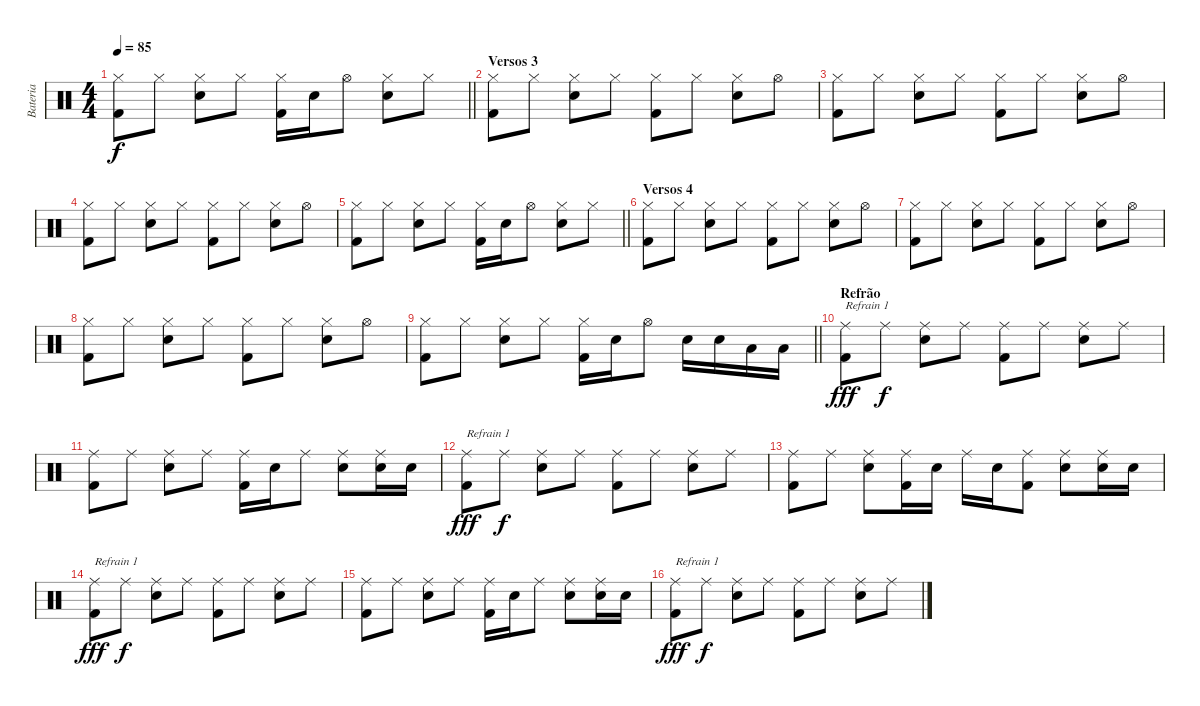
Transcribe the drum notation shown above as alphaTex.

\track ("Bateria" "Bateria") {instrument percussion}
\staff {score}
\articulation defaults
\ts (4 4)
\tempo 85
\clef neutral
\barLineRight lightlight
\ks c
("Hi-Hat (closed)" "Kick (hit) 2").8{dy f} "Hi-Hat (closed)".8 ("Hi-Hat (closed)" "Snare (hit) 2").8 "Hi-Hat (closed)".8 ("Hi-Hat (closed)" "Kick (hit) 2").16 "Snare (hit) 2".16 "Hi-Hat (open)".8 ("Hi-Hat (closed)" "Snare (hit) 2").8 "Hi-Hat (closed)".8 |
\section ("" "Versos 3")
("Hi-Hat (closed)" "Kick (hit) 2").8 "Hi-Hat (closed)".8 ("Hi-Hat (closed)" "Snare (hit) 2").8 "Hi-Hat (closed)".8 ("Hi-Hat (closed)" "Kick (hit) 2").8 "Hi-Hat (closed)".8 ("Hi-Hat (closed)" "Snare (hit) 2").8 "Hi-Hat (open)".8 |
("Hi-Hat (closed)" "Kick (hit) 2").8 "Hi-Hat (closed)".8 ("Hi-Hat (closed)" "Snare (hit) 2").8 "Hi-Hat (closed)".8 ("Hi-Hat (closed)" "Kick (hit) 2").8 "Hi-Hat (closed)".8 ("Hi-Hat (closed)" "Snare (hit) 2").8 "Hi-Hat (open)".8 |
("Hi-Hat (closed)" "Kick (hit) 2").8 "Hi-Hat (closed)".8 ("Hi-Hat (closed)" "Snare (hit) 2").8 "Hi-Hat (closed)".8 ("Hi-Hat (closed)" "Kick (hit) 2").8 "Hi-Hat (closed)".8 ("Hi-Hat (closed)" "Snare (hit) 2").8 "Hi-Hat (open)".8 |
\barLineRight lightlight
("Hi-Hat (closed)" "Kick (hit) 2").8 "Hi-Hat (closed)".8 ("Hi-Hat (closed)" "Snare (hit) 2").8 "Hi-Hat (closed)".8 ("Hi-Hat (closed)" "Kick (hit) 2").16 "Snare (hit) 2".16 "Hi-Hat (open)".8 ("Hi-Hat (closed)" "Snare (hit) 2").8 "Hi-Hat (closed)".8 |
\section ("" "Versos 4")
("Hi-Hat (closed)" "Kick (hit) 2").8 "Hi-Hat (closed)".8 ("Hi-Hat (closed)" "Snare (hit) 2").8 "Hi-Hat (closed)".8 ("Hi-Hat (closed)" "Kick (hit) 2").8 "Hi-Hat (closed)".8 ("Hi-Hat (closed)" "Snare (hit) 2").8 "Hi-Hat (open)".8 |
("Hi-Hat (closed)" "Kick (hit) 2").8 "Hi-Hat (closed)".8 ("Hi-Hat (closed)" "Snare (hit) 2").8 "Hi-Hat (closed)".8 ("Hi-Hat (closed)" "Kick (hit) 2").8 "Hi-Hat (closed)".8 ("Hi-Hat (closed)" "Snare (hit) 2").8 "Hi-Hat (open)".8 |
("Hi-Hat (closed)" "Kick (hit) 2").8 "Hi-Hat (closed)".8 ("Hi-Hat (closed)" "Snare (hit) 2").8 "Hi-Hat (closed)".8 ("Hi-Hat (closed)" "Kick (hit) 2").8 "Hi-Hat (closed)".8 ("Hi-Hat (closed)" "Snare (hit) 2").8 "Hi-Hat (open)".8 |
\barLineRight lightlight
("Hi-Hat (closed)" "Kick (hit) 2").8 "Hi-Hat (closed)".8 ("Hi-Hat (closed)" "Snare (hit) 2").8 "Hi-Hat (closed)".8 ("Hi-Hat (closed)" "Kick (hit) 2").16 "Snare (hit) 2".16 "Hi-Hat (open)".8 "Snare (hit) 2".16 "Snare (hit) 2".16 "Low Tom (hit)".16 "Low Tom (hit)".16 |
\section ("" "Refrão")
("Ride (middle)" "Kick (hit) 2").8{txt "Refrain 1" dy fff} "Ride (middle)".8{dy f} ("Ride (middle)" "Snare (hit) 2").8 "Ride (middle)".8 ("Ride (middle)" "Kick (hit) 2").8 "Ride (middle)".8 ("Ride (middle)" "Snare (hit) 2").8 "Ride (middle)".8 |
("Ride (middle)" "Kick (hit) 2").8 "Ride (middle)".8 ("Ride (middle)" "Snare (hit) 2").8 "Ride (middle)".8 ("Ride (middle)" "Kick (hit) 2").16 "Snare (hit) 2".16 "Ride (middle)".8 ("Ride (middle)" "Snare (hit) 2").8 ("Ride (middle)" "Snare (hit) 2").16 "Snare (hit) 2".16 |
("Ride (middle)" "Kick (hit) 2").8{txt "Refrain 1" dy fff} "Ride (middle)".8{dy f} ("Ride (middle)" "Snare (hit) 2").8 "Ride (middle)".8 ("Ride (middle)" "Kick (hit) 2").8 "Ride (middle)".8 ("Ride (middle)" "Snare (hit) 2").8 "Ride (middle)".8 |
("Ride (middle)" "Kick (hit) 2").8 "Ride (middle)".8 ("Ride (middle)" "Snare (hit) 2").8 ("Ride (middle)" "Kick (hit) 2").16 "Snare (hit) 2".16 "Ride (middle)".16 "Snare (hit) 2".16 ("Ride (middle)" "Kick (hit) 2").8 ("Ride (middle)" "Snare (hit) 2").8 ("Ride (middle)" "Snare (hit) 2").16 "Snare (hit) 2".16 |
("Ride (middle)" "Kick (hit) 2").8{txt "Refrain 1" dy fff} "Ride (middle)".8{dy f} ("Ride (middle)" "Snare (hit) 2").8 "Ride (middle)".8 ("Ride (middle)" "Kick (hit) 2").8 "Ride (middle)".8 ("Ride (middle)" "Snare (hit) 2").8 "Ride (middle)".8 |
("Ride (middle)" "Kick (hit) 2").8 "Ride (middle)".8 ("Ride (middle)" "Snare (hit) 2").8 "Ride (middle)".8 ("Ride (middle)" "Kick (hit) 2").16 "Snare (hit) 2".16 "Ride (middle)".8 ("Ride (middle)" "Snare (hit) 2").8 ("Ride (middle)" "Snare (hit) 2").16 "Snare (hit) 2".16 |
("Ride (middle)" "Kick (hit) 2").8{txt "Refrain 1" dy fff} "Ride (middle)".8{dy f} ("Ride (middle)" "Snare (hit) 2").8 "Ride (middle)".8 ("Ride (middle)" "Kick (hit) 2").8 "Ride (middle)".8 ("Ride (middle)" "Snare (hit) 2").8 "Ride (middle)".8
